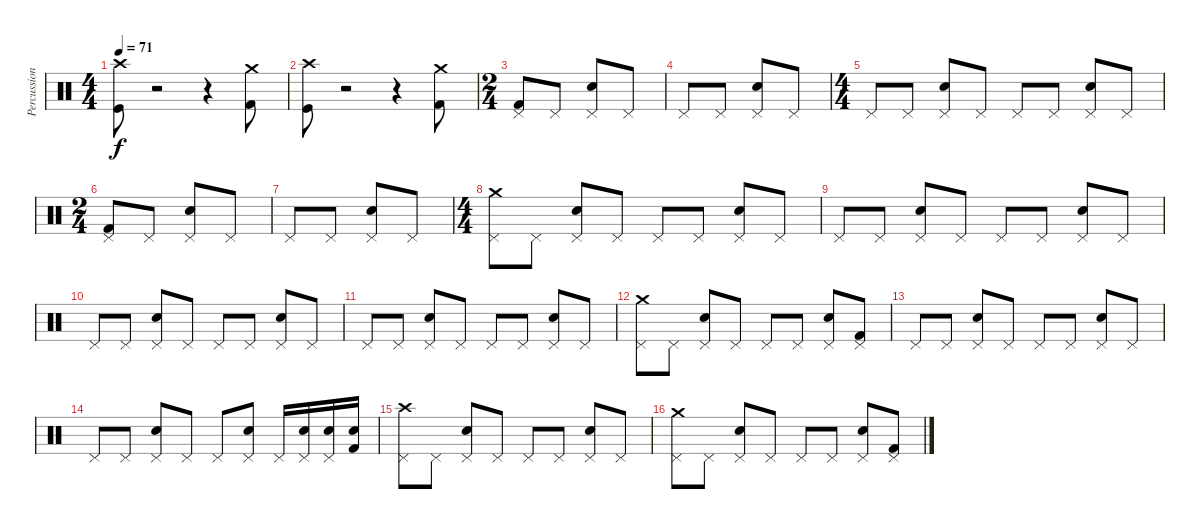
\track ("Percussion" "Percussion") {instrument percussion}
\staff {score}
\articulation defaults
\ts (4 4)
\tempo 71
\clef neutral
\ks c
("Crash high (hit)" "Kick (hit)").8{dy f} r.2 r.4 ("Crash medium (hit)" "Kick (hit) 2").8 |
("Crash high (hit)" "Kick (hit)").8 r.2 r.4 ("Crash medium (hit)" "Kick (hit) 2").8 |
\ts (2 4)
("Pedal Hi-Hat (hit)" "Kick (hit) 2").8 "Pedal Hi-Hat (hit)".8 ("Pedal Hi-Hat (hit)" "Electric Snare (hit)").8 "Pedal Hi-Hat (hit)".8 |
"Pedal Hi-Hat (hit)".8 "Pedal Hi-Hat (hit)".8 ("Pedal Hi-Hat (hit)" "Electric Snare (hit)").8 "Pedal Hi-Hat (hit)".8 |
\ts (4 4)
"Pedal Hi-Hat (hit)".8 "Pedal Hi-Hat (hit)".8 ("Pedal Hi-Hat (hit)" "Electric Snare (hit)").8 "Pedal Hi-Hat (hit)".8 "Pedal Hi-Hat (hit)".8 "Pedal Hi-Hat (hit)".8 ("Pedal Hi-Hat (hit)" "Electric Snare (hit)").8 "Pedal Hi-Hat (hit)".8 |
\ts (2 4)
("Pedal Hi-Hat (hit)" "Kick (hit) 2").8 "Pedal Hi-Hat (hit)".8 ("Pedal Hi-Hat (hit)" "Electric Snare (hit)").8 "Pedal Hi-Hat (hit)".8 |
"Pedal Hi-Hat (hit)".8 "Pedal Hi-Hat (hit)".8 ("Pedal Hi-Hat (hit)" "Electric Snare (hit)").8 "Pedal Hi-Hat (hit)".8 |
\ts (4 4)
("Pedal Hi-Hat (hit)" "Crash medium (hit)").8 "Pedal Hi-Hat (hit)".8 ("Pedal Hi-Hat (hit)" "Electric Snare (hit)").8 "Pedal Hi-Hat (hit)".8 "Pedal Hi-Hat (hit)".8 "Pedal Hi-Hat (hit)".8 ("Pedal Hi-Hat (hit)" "Electric Snare (hit)").8 "Pedal Hi-Hat (hit)".8 |
"Pedal Hi-Hat (hit)".8 "Pedal Hi-Hat (hit)".8 ("Pedal Hi-Hat (hit)" "Electric Snare (hit)").8 "Pedal Hi-Hat (hit)".8 "Pedal Hi-Hat (hit)".8 "Pedal Hi-Hat (hit)".8 ("Pedal Hi-Hat (hit)" "Electric Snare (hit)").8 "Pedal Hi-Hat (hit)".8 |
"Pedal Hi-Hat (hit)".8 "Pedal Hi-Hat (hit)".8 ("Pedal Hi-Hat (hit)" "Electric Snare (hit)").8 "Pedal Hi-Hat (hit)".8 "Pedal Hi-Hat (hit)".8 "Pedal Hi-Hat (hit)".8 ("Pedal Hi-Hat (hit)" "Electric Snare (hit)").8 "Pedal Hi-Hat (hit)".8 |
"Pedal Hi-Hat (hit)".8 "Pedal Hi-Hat (hit)".8 ("Pedal Hi-Hat (hit)" "Electric Snare (hit)").8 "Pedal Hi-Hat (hit)".8 "Pedal Hi-Hat (hit)".8 "Pedal Hi-Hat (hit)".8 ("Pedal Hi-Hat (hit)" "Electric Snare (hit)").8 "Pedal Hi-Hat (hit)".8 |
("Pedal Hi-Hat (hit)" "Crash medium (hit)").8 "Pedal Hi-Hat (hit)".8 ("Pedal Hi-Hat (hit)" "Electric Snare (hit)").8 "Pedal Hi-Hat (hit)".8 "Pedal Hi-Hat (hit)".8 "Pedal Hi-Hat (hit)".8 ("Pedal Hi-Hat (hit)" "Electric Snare (hit)").8 ("Pedal Hi-Hat (hit)" "Kick (hit) 2").8 |
"Pedal Hi-Hat (hit)".8 "Pedal Hi-Hat (hit)".8 ("Pedal Hi-Hat (hit)" "Electric Snare (hit)").8 "Pedal Hi-Hat (hit)".8 "Pedal Hi-Hat (hit)".8 "Pedal Hi-Hat (hit)".8 ("Pedal Hi-Hat (hit)" "Electric Snare (hit)").8 "Pedal Hi-Hat (hit)".8 |
"Pedal Hi-Hat (hit)".8 "Pedal Hi-Hat (hit)".8 ("Pedal Hi-Hat (hit)" "Electric Snare (hit)").8 "Pedal Hi-Hat (hit)".8 "Pedal Hi-Hat (hit)".8 ("Pedal Hi-Hat (hit)" "Snare (hit) 2").8 "Pedal Hi-Hat (hit)".16 ("Pedal Hi-Hat (hit)" "Electric Snare (hit)").16 ("Pedal Hi-Hat (hit)" "Snare (hit) 2").16 ("Electric Snare (hit)" "Kick (hit) 2").16 |
("Pedal Hi-Hat (hit)" "Crash high (hit)").8 "Pedal Hi-Hat (hit)".8 ("Pedal Hi-Hat (hit)" "Electric Snare (hit)").8 "Pedal Hi-Hat (hit)".8 "Pedal Hi-Hat (hit)".8 "Pedal Hi-Hat (hit)".8 ("Pedal Hi-Hat (hit)" "Electric Snare (hit)").8 "Pedal Hi-Hat (hit)".8 |
("Pedal Hi-Hat (hit)" "Crash medium (hit)").8 "Pedal Hi-Hat (hit)".8 ("Pedal Hi-Hat (hit)" "Electric Snare (hit)").8 "Pedal Hi-Hat (hit)".8 "Pedal Hi-Hat (hit)".8 "Pedal Hi-Hat (hit)".8 ("Pedal Hi-Hat (hit)" "Electric Snare (hit)").8 ("Pedal Hi-Hat (hit)" "Kick (hit) 2").8
